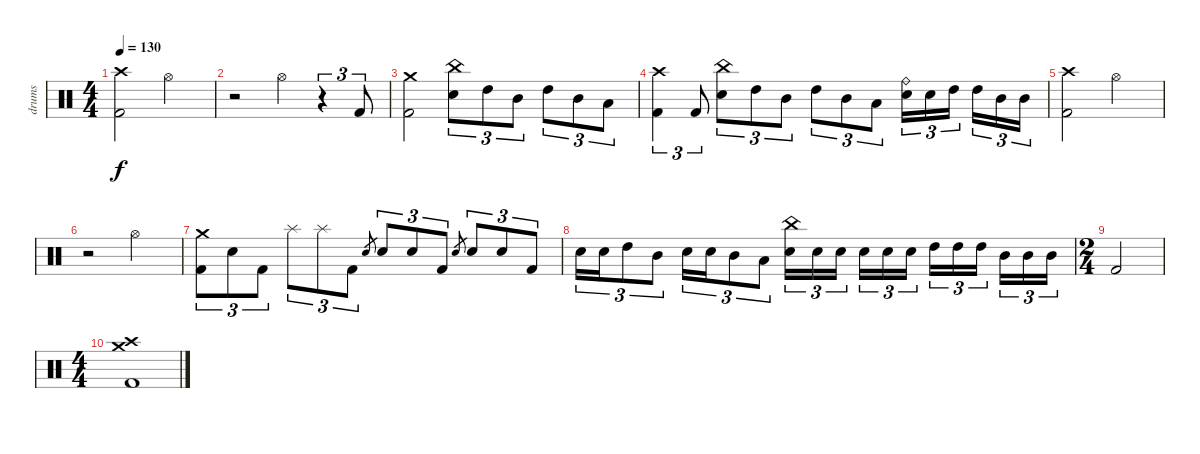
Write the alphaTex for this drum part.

\track ("drums" "drums") {instrument percussion}
\staff {score}
\articulation defaults
\ts (4 4)
\tempo 130
\clef neutral
\ks c
("Crash high (hit)" "Kick (hit) 2").2{dy f} "Hi-Hat (open)".2 |
r.2 "Hi-Hat (open)".4 r.4{tu (3 2)} "Kick (hit) 2".8{tu (3 2)} |
("Crash medium (hit)" "Kick (hit) 2").2 ("China (hit)" "Snare (hit) 2").8{tu (3 2)} "High Tom (hit)".8{tu (3 2)} "Mid Tom (hit)".8{tu (3 2)} "High Tom (hit)".8{tu (3 2)} "Mid Tom (hit)".8{tu (3 2)} "Low Tom (hit)".8{tu (3 2)} |
("Crash high (hit)" "Kick (hit) 2").4{tu (3 2)} "Kick (hit) 2".8{tu (3 2)} ("China (hit)" "Snare (hit) 2").8{tu (3 2)} "High Tom (hit)".8{tu (3 2)} "Mid Tom (hit)".8{tu (3 2)} "High Tom (hit)".8{tu (3 2)} "Mid Tom (hit)".8{tu (3 2)} "Low Tom (hit)".8{tu (3 2)} ("Ride (bell)" "Snare (hit) 2").16{tu (3 2)} "Snare (hit) 2".16{tu (3 2)} "High Tom (hit)".16{tu (3 2) beam splitsecondary} "High Tom (hit)".16{tu (3 2)} "Mid Tom (hit)".16{tu (3 2)} "Mid Tom (hit)".16{tu (3 2)} |
("Crash high (hit)" "Kick (hit) 2").2 "Hi-Hat (open)".2 |
r.2 "Hi-Hat (open)".2 |
("Crash medium (hit)" "Kick (hit) 2").8{tu (3 2)} "Snare (hit) 2".8{tu (3 2)} "Kick (hit) 2".8{tu (3 2)} "Splash (hit)".8{tu (3 2)} "Splash (hit)".8{tu (3 2)} "Kick (hit) 2".8{tu (3 2)} "Snare (hit) 2".8{gr} "Snare (hit) 2".8{tu (3 2)} "Snare (hit) 2".8{tu (3 2)} "Kick (hit) 2".8{tu (3 2)} "Snare (hit) 2".8{gr} "Snare (hit) 2".8{tu (3 2)} "Snare (hit) 2".8{tu (3 2)} "Kick (hit) 2".8{tu (3 2)} |
"Snare (hit) 2".16{tu (3 2)} "Snare (hit) 2".16{tu (3 2)} "High Tom (hit)".8{tu (3 2)} "Mid Tom (hit)".8{tu (3 2)} "Snare (hit) 2".16{tu (3 2)} "Snare (hit) 2".16{tu (3 2)} "Mid Tom (hit)".8{tu (3 2)} "Low Tom (hit)".8{tu (3 2)} ("China (hit)" "Snare (hit) 2").16{tu (3 2)} "Snare (hit) 2".16{tu (3 2)} "Snare (hit) 2".16{tu (3 2) beam splitsecondary} "Snare (hit) 2".16{tu (3 2)} "Snare (hit) 2".16{tu (3 2)} "Snare (hit) 2".16{tu (3 2)} "High Tom (hit)".16{tu (3 2)} "High Tom (hit)".16{tu (3 2)} "High Tom (hit)".16{tu (3 2) beam splitsecondary} "Mid Tom (hit)".16{tu (3 2)} "Mid Tom (hit)".16{tu (3 2)} "Mid Tom (hit)".16{tu (3 2)} |
\ts (2 4)
"Kick (hit) 2".2 |
\ts (4 4)
("Crash medium (hit)" "Crash high (hit)" "Kick (hit) 2").1
